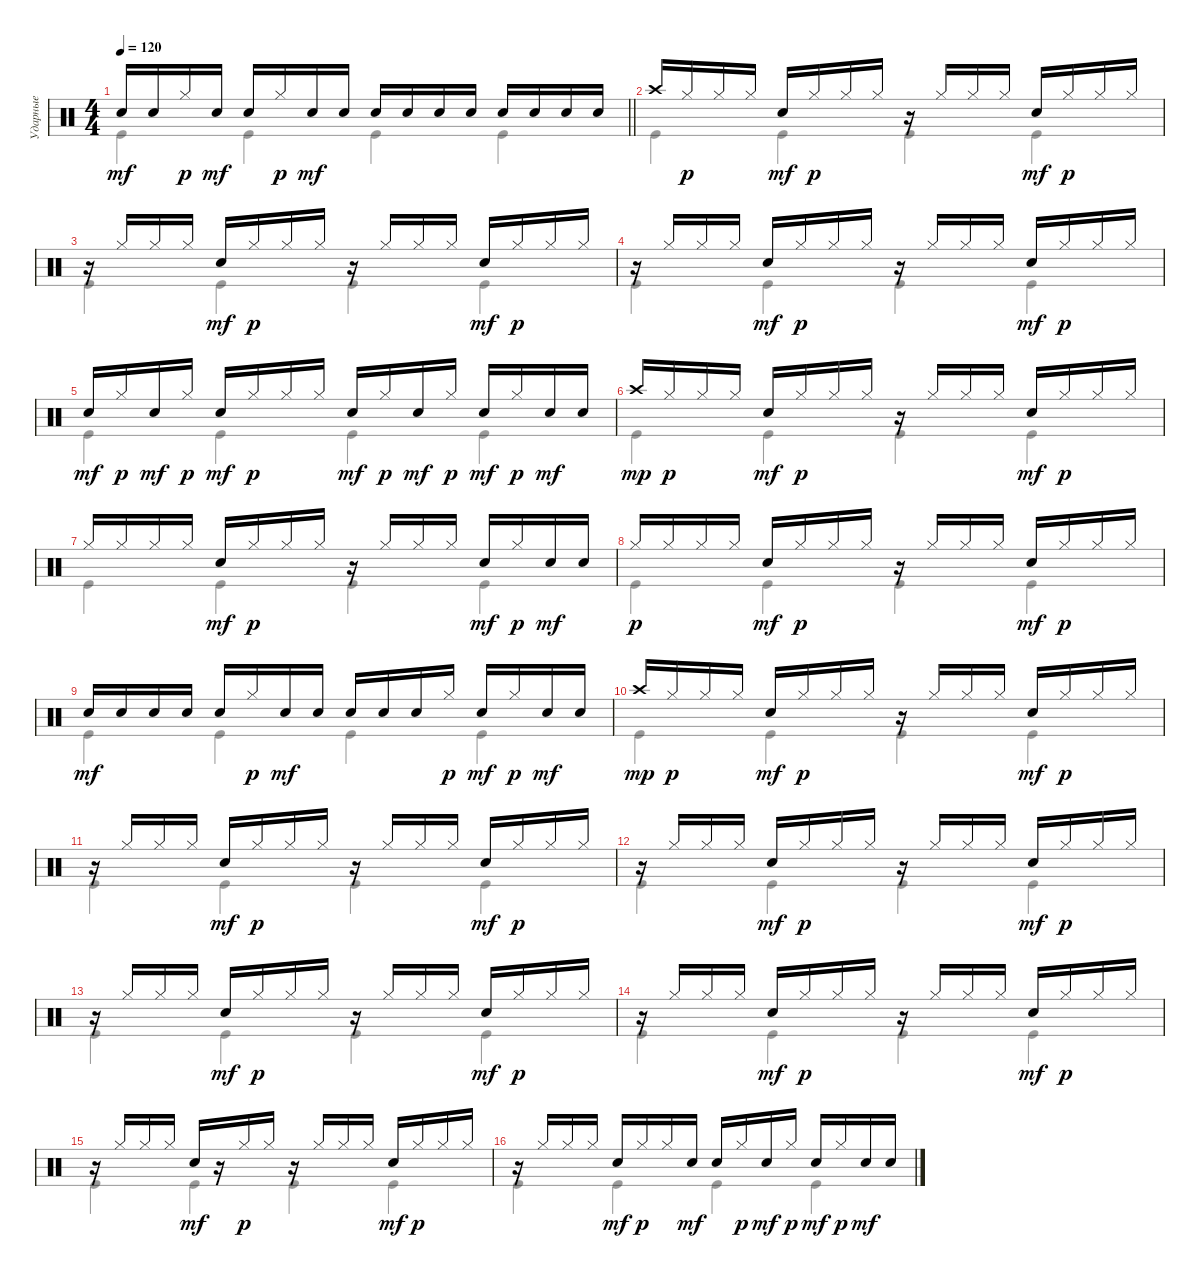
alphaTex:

\track ("Ударные" "Ударные") {instrument percussion}
\staff {score}
\articulation defaults
\voice
\ts (4 4)
\tempo 120
\clef neutral
\barLineRight lightlight
\ks c "Snare (hit) 2".16{dy mf} "Snare (hit) 2".16 "Hi-Hat (closed)".16{dy p} "Snare (hit) 2".16{dy mf} "Snare (hit) 2".16 "Hi-Hat (closed)".16{dy p} "Snare (hit) 2".16{dy mf} "Snare (hit) 2".16 "Snare (hit) 2".16 "Snare (hit) 2".16 "Snare (hit) 2".16 "Snare (hit) 2".16 "Snare (hit) 2".16 "Snare (hit) 2".16 "Snare (hit) 2".16 "Snare (hit) 2".16
|
"Crash high (hit)".16 "Hi-Hat (closed)".16{dy p} "Hi-Hat (closed)".16 "Hi-Hat (closed)".16 "Snare (hit) 2".16{dy mf} "Hi-Hat (closed)".16{dy p} "Hi-Hat (closed)".16 "Hi-Hat (closed)".16 r.16 "Hi-Hat (closed)".16 "Hi-Hat (closed)".16 "Hi-Hat (closed)".16 "Snare (hit) 2".16{dy mf} "Hi-Hat (closed)".16{dy p} "Hi-Hat (closed)".16 "Hi-Hat (closed)".16 |
r.16 "Hi-Hat (closed)".16 "Hi-Hat (closed)".16 "Hi-Hat (closed)".16 "Snare (hit) 2".16{dy mf} "Hi-Hat (closed)".16{dy p} "Hi-Hat (closed)".16 "Hi-Hat (closed)".16 r.16 "Hi-Hat (closed)".16 "Hi-Hat (closed)".16 "Hi-Hat (closed)".16 "Snare (hit) 2".16{dy mf} "Hi-Hat (closed)".16{dy p} "Hi-Hat (closed)".16 "Hi-Hat (closed)".16 |
r.16 "Hi-Hat (closed)".16 "Hi-Hat (closed)".16 "Hi-Hat (closed)".16 "Snare (hit) 2".16{dy mf} "Hi-Hat (closed)".16{dy p} "Hi-Hat (closed)".16 "Hi-Hat (closed)".16 r.16 "Hi-Hat (closed)".16 "Hi-Hat (closed)".16 "Hi-Hat (closed)".16 "Snare (hit) 2".16{dy mf} "Hi-Hat (closed)".16{dy p} "Hi-Hat (closed)".16 "Hi-Hat (closed)".16 |
"Snare (hit) 2".16{dy mf} "Hi-Hat (closed)".16{dy p} "Snare (hit) 2".16{dy mf} "Hi-Hat (closed)".16{dy p} "Snare (hit) 2".16{dy mf} "Hi-Hat (closed)".16{dy p} "Hi-Hat (closed)".16 "Hi-Hat (closed)".16 "Snare (hit) 2".16{dy mf} "Hi-Hat (closed)".16{dy p} "Snare (hit) 2".16{dy mf} "Hi-Hat (closed)".16{dy p} "Snare (hit) 2".16{dy mf} "Hi-Hat (closed)".16{dy p} "Snare (hit) 2".16{dy mf} "Snare (hit) 2".16 |
"Crash high (hit)".16{dy mp} "Hi-Hat (closed)".16{dy p} "Hi-Hat (closed)".16 "Hi-Hat (closed)".16 "Snare (hit) 2".16{dy mf} "Hi-Hat (closed)".16{dy p} "Hi-Hat (closed)".16 "Hi-Hat (closed)".16 r.16 "Hi-Hat (closed)".16 "Hi-Hat (closed)".16 "Hi-Hat (closed)".16 "Snare (hit) 2".16{dy mf} "Hi-Hat (closed)".16{dy p} "Hi-Hat (closed)".16 "Hi-Hat (closed)".16 |
"Hi-Hat (closed)".16 "Hi-Hat (closed)".16 "Hi-Hat (closed)".16 "Hi-Hat (closed)".16 "Snare (hit) 2".16{dy mf} "Hi-Hat (closed)".16{dy p} "Hi-Hat (closed)".16 "Hi-Hat (closed)".16 r.16 "Hi-Hat (closed)".16 "Hi-Hat (closed)".16 "Hi-Hat (closed)".16 "Snare (hit) 2".16{dy mf} "Hi-Hat (closed)".16{dy p} "Snare (hit) 2".16{dy mf} "Snare (hit) 2".16 |
"Hi-Hat (closed)".16{dy p} "Hi-Hat (closed)".16 "Hi-Hat (closed)".16 "Hi-Hat (closed)".16 "Snare (hit) 2".16{dy mf} "Hi-Hat (closed)".16{dy p} "Hi-Hat (closed)".16 "Hi-Hat (closed)".16 r.16 "Hi-Hat (closed)".16 "Hi-Hat (closed)".16 "Hi-Hat (closed)".16 "Snare (hit) 2".16{dy mf} "Hi-Hat (closed)".16{dy p} "Hi-Hat (closed)".16 "Hi-Hat (closed)".16 |
"Snare (hit) 2".16{dy mf} "Snare (hit) 2".16 "Snare (hit) 2".16 "Snare (hit) 2".16 "Snare (hit) 2".16 "Hi-Hat (closed)".16{dy p} "Snare (hit) 2".16{dy mf} "Snare (hit) 2".16 "Snare (hit) 2".16 "Snare (hit) 2".16 "Snare (hit) 2".16 "Hi-Hat (closed)".16{dy p} "Snare (hit) 2".16{dy mf} "Hi-Hat (closed)".16{dy p} "Snare (hit) 2".16{dy mf} "Snare (hit) 2".16 |
"Crash high (hit)".16{dy mp} "Hi-Hat (closed)".16{dy p} "Hi-Hat (closed)".16 "Hi-Hat (closed)".16 "Snare (hit) 2".16{dy mf} "Hi-Hat (closed)".16{dy p} "Hi-Hat (closed)".16 "Hi-Hat (closed)".16 r.16 "Hi-Hat (closed)".16 "Hi-Hat (closed)".16 "Hi-Hat (closed)".16 "Snare (hit) 2".16{dy mf} "Hi-Hat (closed)".16{dy p} "Hi-Hat (closed)".16 "Hi-Hat (closed)".16 |
r.16 "Hi-Hat (closed)".16 "Hi-Hat (closed)".16 "Hi-Hat (closed)".16 "Snare (hit) 2".16{dy mf} "Hi-Hat (closed)".16{dy p} "Hi-Hat (closed)".16 "Hi-Hat (closed)".16 r.16 "Hi-Hat (closed)".16 "Hi-Hat (closed)".16 "Hi-Hat (closed)".16 "Snare (hit) 2".16{dy mf} "Hi-Hat (closed)".16{dy p} "Hi-Hat (closed)".16 "Hi-Hat (closed)".16 |
r.16 "Hi-Hat (closed)".16 "Hi-Hat (closed)".16 "Hi-Hat (closed)".16 "Snare (hit) 2".16{dy mf} "Hi-Hat (closed)".16{dy p} "Hi-Hat (closed)".16 "Hi-Hat (closed)".16 r.16 "Hi-Hat (closed)".16 "Hi-Hat (closed)".16 "Hi-Hat (closed)".16 "Snare (hit) 2".16{dy mf} "Hi-Hat (closed)".16{dy p} "Hi-Hat (closed)".16 "Hi-Hat (closed)".16 |
r.16 "Hi-Hat (closed)".16 "Hi-Hat (closed)".16 "Hi-Hat (closed)".16 "Snare (hit) 2".16{dy mf} "Hi-Hat (closed)".16{dy p} "Hi-Hat (closed)".16 "Hi-Hat (closed)".16 r.16 "Hi-Hat (closed)".16 "Hi-Hat (closed)".16 "Hi-Hat (closed)".16 "Snare (hit) 2".16{dy mf} "Hi-Hat (closed)".16{dy p} "Hi-Hat (closed)".16 "Hi-Hat (closed)".16 |
r.16 "Hi-Hat (closed)".16 "Hi-Hat (closed)".16 "Hi-Hat (closed)".16 "Snare (hit) 2".16{dy mf} "Hi-Hat (closed)".16{dy p} "Hi-Hat (closed)".16 "Hi-Hat (closed)".16 r.16 "Hi-Hat (closed)".16 "Hi-Hat (closed)".16 "Hi-Hat (closed)".16 "Snare (hit) 2".16{dy mf} "Hi-Hat (closed)".16{dy p} "Hi-Hat (closed)".16 "Hi-Hat (closed)".16 |
r.16 "Hi-Hat (closed)".16 "Hi-Hat (closed)".16 "Hi-Hat (closed)".16 "Snare (hit) 2".16{dy mf} r.16 "Hi-Hat (closed)".16{dy p} "Hi-Hat (closed)".16 r.16 "Hi-Hat (closed)".16 "Hi-Hat (closed)".16 "Hi-Hat (closed)".16 "Snare (hit) 2".16{dy mf} "Hi-Hat (closed)".16{dy p} "Hi-Hat (closed)".16 "Hi-Hat (closed)".16 |
r.16 "Hi-Hat (closed)".16 "Hi-Hat (closed)".16 "Hi-Hat (closed)".16 "Snare (hit) 2".16{dy mf} "Hi-Hat (closed)".16{dy p} "Hi-Hat (closed)".16 "Snare (hit) 2".16{dy mf} "Snare (hit) 2".16 "Hi-Hat (closed)".16{dy p} "Snare (hit) 2".16{dy mf} "Hi-Hat (closed)".16{dy p} "Snare (hit) 2".16{dy mf} "Hi-Hat (closed)".16{dy p} "Snare (hit) 2".16{dy mf} "Snare (hit) 2".16
\voice
\clef neutral
\ottava regular
\simile none
\barLineRight lightlight
\ks c "Kick (hit)".4{dy mf} "Kick (hit)".4 "Kick (hit)".4 "Kick (hit)".4
|
"Kick (hit)".4 "Kick (hit)".4 "Kick (hit)".4 "Kick (hit)".4 |
"Kick (hit)".4 "Kick (hit)".4 "Kick (hit)".4 "Kick (hit)".4 |
"Kick (hit)".4 "Kick (hit)".4 "Kick (hit)".4 "Kick (hit)".4 |
"Kick (hit)".4 "Kick (hit)".4 "Kick (hit)".4 "Kick (hit)".4 |
"Kick (hit)".4 "Kick (hit)".4 "Kick (hit)".4 "Kick (hit)".4 |
"Kick (hit)".4 "Kick (hit)".4 "Kick (hit)".4 "Kick (hit)".4 |
"Kick (hit)".4 "Kick (hit)".4 "Kick (hit)".4 "Kick (hit)".4 |
"Kick (hit)".4 "Kick (hit)".4 "Kick (hit)".4 "Kick (hit)".4 |
"Kick (hit)".4 "Kick (hit)".4 "Kick (hit)".4 "Kick (hit)".4 |
"Kick (hit)".4 "Kick (hit)".4 "Kick (hit)".4 "Kick (hit)".4 |
"Kick (hit)".4 "Kick (hit)".4 "Kick (hit)".4 "Kick (hit)".4 |
"Kick (hit)".4 "Kick (hit)".4 "Kick (hit)".4 "Kick (hit)".4 |
"Kick (hit)".4 "Kick (hit)".4 "Kick (hit)".4 "Kick (hit)".4 |
"Kick (hit)".4 "Kick (hit)".4 "Kick (hit)".4 "Kick (hit)".4 |
"Kick (hit)".4 "Kick (hit)".4 "Kick (hit)".4 "Kick (hit)".4
